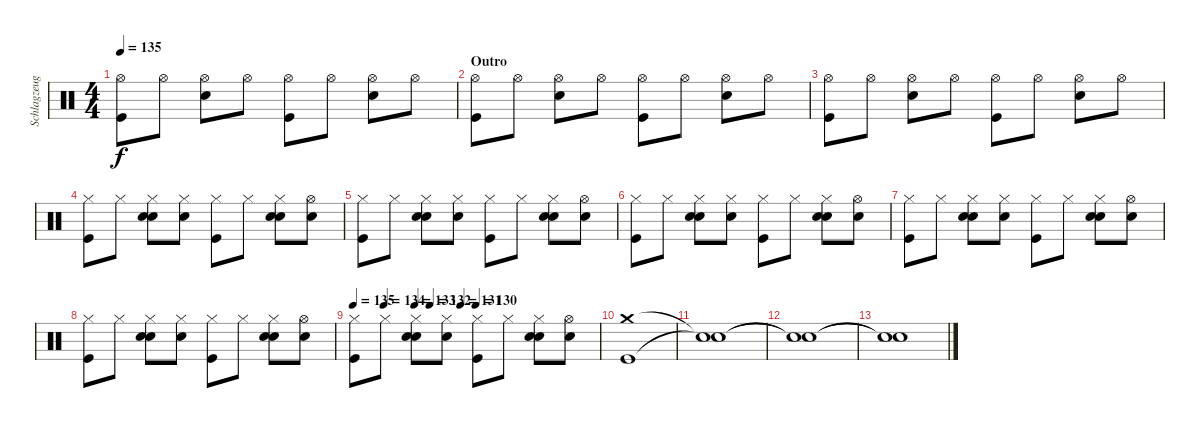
\track ("Schlagzeug - Bela B." "Schlagzeug") {instrument percussion}
\staff {score}
\articulation defaults
\ts (4 4)
\tempo 135
\clef neutral
\ks c
("Kick (hit)" "Hi-Hat (open)").8{dy f} "Hi-Hat (open)".8 ("Electric Snare (hit)" "Hi-Hat (open)").8 "Hi-Hat (open)".8 ("Kick (hit)" "Hi-Hat (open)").8 "Hi-Hat (open)".8 ("Electric Snare (hit)" "Hi-Hat (open)").8 "Hi-Hat (open)".8 |
\section ("" "Outro")
("Kick (hit)" "Hi-Hat (open)").8 "Hi-Hat (open)".8 ("Electric Snare (hit)" "Hi-Hat (open)").8 "Hi-Hat (open)".8 ("Kick (hit)" "Hi-Hat (open)").8 "Hi-Hat (open)".8 ("Electric Snare (hit)" "Hi-Hat (open)").8 "Hi-Hat (open)".8 |
("Kick (hit)" "Hi-Hat (open)").8 "Hi-Hat (open)".8 ("Electric Snare (hit)" "Hi-Hat (open)").8 "Hi-Hat (open)".8 ("Kick (hit)" "Hi-Hat (open)").8 "Hi-Hat (open)".8 ("Electric Snare (hit)" "Hi-Hat (open)").8 "Hi-Hat (open)".8 |
("Kick (hit)" "Hi-Hat (closed)").8 "Hi-Hat (closed)".8 ("Hand Clap (hit)" "Hi-Hat (closed)" "Electric Snare (hit)").8 ("Hi-Hat (closed)" "Hand Clap (hit)").8 ("Kick (hit)" "Hi-Hat (closed)").8 "Hi-Hat (closed)".8 ("Hand Clap (hit)" "Hi-Hat (closed)" "Electric Snare (hit)").8 ("Hi-Hat (open)" "Hand Clap (hit)").8 |
("Kick (hit)" "Hi-Hat (closed)").8 "Hi-Hat (closed)".8 ("Hand Clap (hit)" "Hi-Hat (closed)" "Electric Snare (hit)").8 ("Hi-Hat (closed)" "Hand Clap (hit)").8 ("Kick (hit)" "Hi-Hat (closed)").8 "Hi-Hat (closed)".8 ("Hand Clap (hit)" "Hi-Hat (closed)" "Electric Snare (hit)").8 ("Hi-Hat (open)" "Hand Clap (hit)").8 |
("Kick (hit)" "Hi-Hat (closed)").8 "Hi-Hat (closed)".8 ("Hand Clap (hit)" "Hi-Hat (closed)" "Electric Snare (hit)").8 ("Hi-Hat (closed)" "Hand Clap (hit)").8 ("Kick (hit)" "Hi-Hat (closed)").8 "Hi-Hat (closed)".8 ("Hand Clap (hit)" "Hi-Hat (closed)" "Electric Snare (hit)").8 ("Hi-Hat (open)" "Hand Clap (hit)").8 |
("Kick (hit)" "Hi-Hat (closed)").8 "Hi-Hat (closed)".8 ("Hand Clap (hit)" "Hi-Hat (closed)" "Electric Snare (hit)").8 ("Hi-Hat (closed)" "Hand Clap (hit)").8 ("Kick (hit)" "Hi-Hat (closed)").8 "Hi-Hat (closed)".8 ("Hand Clap (hit)" "Hi-Hat (closed)" "Electric Snare (hit)").8 ("Hi-Hat (open)" "Hand Clap (hit)").8 |
("Kick (hit)" "Hi-Hat (closed)").8 "Hi-Hat (closed)".8 ("Hand Clap (hit)" "Hi-Hat (closed)" "Electric Snare (hit)").8 ("Hi-Hat (closed)" "Hand Clap (hit)").8 ("Kick (hit)" "Hi-Hat (closed)").8 "Hi-Hat (closed)".8 ("Hand Clap (hit)" "Hi-Hat (closed)" "Electric Snare (hit)").8 ("Hi-Hat (open)" "Hand Clap (hit)").8 |
\tempo 135
\tempo (134 0.125)
\tempo (133 0.25)
\tempo (132 0.3125)
\tempo (131 0.4375)
\tempo (130 0.5)
("Kick (hit)" "Hi-Hat (closed)").8 "Hi-Hat (closed)".8 ("Hand Clap (hit)" "Hi-Hat (closed)" "Electric Snare (hit)").8 ("Hi-Hat (closed)" "Hand Clap (hit)").8 ("Kick (hit)" "Hi-Hat (closed)").8 "Hi-Hat (closed)".8 ("Hand Clap (hit)" "Hi-Hat (closed)" "Electric Snare (hit)").8 ("Hi-Hat (open)" "Hand Clap (hit)").8 |
("Kick (hit)" "Crash medium (hit)").1 |
("Snare (hit)"{t} "Snare (hit)"{t}).1 |
("Snare (hit)"{t} "Snare (hit)"{t}).1 |
("Snare (hit)"{t} "Snare (hit)"{t}).1
